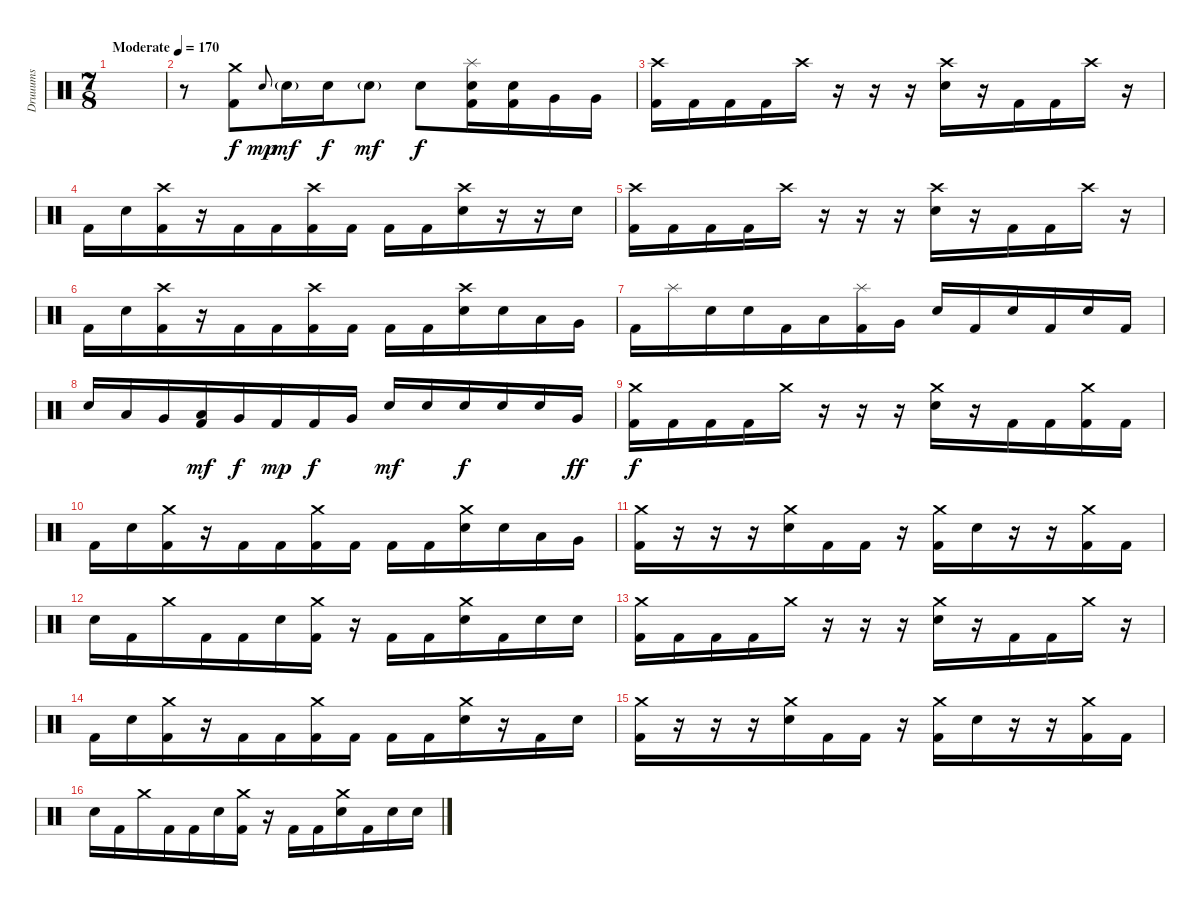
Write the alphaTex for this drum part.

\track ("Druuums" "Druuums") {instrument percussion}
\staff {score}
\articulation defaults
\ts (7 8)
\tempo (170 "Moderate")
\clef neutral
\ks c
|
r.8 ("Crash medium (hit)" "Kick (hit) 2").8 "Electric Snare (hit)".8{gr onbeat dy mp} "Electric Snare (hit)"{g}.16{dy mf} "Electric Snare (hit)".16{dy f} "Electric Snare (hit)"{g}.8{dy mf} "Electric Snare (hit)".8{dy f} ("Splash (hit)" "Electric Snare (hit)" "Kick (hit) 2").16 ("Electric Snare (hit)" "Kick (hit) 2").16 "Very Low Tom (hit)".16 "Very Low Tom (hit)".16 |
("Crash high (hit)" "Kick (hit) 2").16 "Kick (hit) 2".16 "Kick (hit) 2".16 "Kick (hit) 2".16 "Crash high (hit)".16 r.16 r.16 r.16 ("Crash high (hit)" "Electric Snare (hit)").16 r.16 "Kick (hit) 2".16 "Kick (hit) 2".16 "Crash high (hit)".16 r.16 |
"Kick (hit) 2".16 "Electric Snare (hit)".16 ("Crash high (hit)" "Kick (hit) 2").16 r.16 "Kick (hit) 2".16 "Kick (hit) 2".16 ("Crash high (hit)" "Kick (hit) 2").16 "Kick (hit) 2".16 "Kick (hit) 2".16 "Kick (hit) 2".16 ("Crash high (hit)" "Electric Snare (hit)").16 r.16 r.16 "Electric Snare (hit)".16 |
("Crash high (hit)" "Kick (hit) 2").16 "Kick (hit) 2".16 "Kick (hit) 2".16 "Kick (hit) 2".16 "Crash high (hit)".16 r.16 r.16 r.16 ("Crash high (hit)" "Electric Snare (hit)").16 r.16 "Kick (hit) 2".16 "Kick (hit) 2".16 "Crash high (hit)".16 r.16 |
"Kick (hit) 2".16 "Electric Snare (hit)".16 ("Crash high (hit)" "Kick (hit) 2").16 r.16 "Kick (hit) 2".16 "Kick (hit) 2".16 ("Crash high (hit)" "Kick (hit) 2").16 "Kick (hit) 2".16 "Kick (hit) 2".16 "Kick (hit) 2".16 ("Crash high (hit)" "Electric Snare (hit)").16 "Electric Snare (hit)".16 "Low Tom (hit)".16 "Very Low Tom (hit)".16 |
"Kick (hit) 2".16 "Splash (hit)".16 "Electric Snare (hit)".16 "Electric Snare (hit)".16 "Kick (hit) 2".16 "Low Tom (hit)".16 ("Splash (hit)" "Kick (hit) 2").16 "Very Low Tom (hit)".16 "Electric Snare (hit)".16 "Kick (hit) 2".16 "Electric Snare (hit)".16 "Kick (hit) 2".16 "Electric Snare (hit)".16 "Kick (hit) 2".16 |
"Electric Snare (hit)".16 "Low Floor Tom (hit)".16 "Very Low Tom (hit)".16 ("Low Floor Tom (hit)" "Kick (hit) 2").16{dy mf} "Very Low Tom (hit)".16{dy f} "Kick (hit) 2".16{dy mp} "Kick (hit) 2".16{dy f} "Very Low Tom (hit)".16 "Electric Snare (hit)".16{dy mf} "Electric Snare (hit)".16 "Electric Snare (hit)".16{dy f} "Electric Snare (hit)".16 "Electric Snare (hit)".16 "Very Low Tom (hit)".16{dy ff} |
("Crash medium (hit)" "Kick (hit) 2").16{dy f} "Kick (hit) 2".16 "Kick (hit) 2".16 "Kick (hit) 2".16 "Crash medium (hit)".16 r.16 r.16 r.16 ("Crash medium (hit)" "Electric Snare (hit)").16 r.16 "Kick (hit) 2".16 "Kick (hit) 2".16 ("Crash medium (hit)" "Kick (hit) 2").16 "Kick (hit) 2".16 |
"Kick (hit) 2".16 "Electric Snare (hit)".16 ("Crash medium (hit)" "Kick (hit) 2").16 r.16 "Kick (hit) 2".16 "Kick (hit) 2".16 ("Crash medium (hit)" "Kick (hit) 2").16 "Kick (hit) 2".16 "Kick (hit) 2".16 "Kick (hit) 2".16 ("Crash medium (hit)" "Electric Snare (hit)").16 "Electric Snare (hit)".16 "Low Tom (hit)".16 "Very Low Tom (hit)".16 |
("Crash medium (hit)" "Kick (hit) 2").16 r.16 r.16 r.16 ("Crash medium (hit)" "Electric Snare (hit)").16 "Kick (hit) 2".16 "Kick (hit) 2".16 r.16 ("Crash medium (hit)" "Kick (hit) 2").16 "Electric Snare (hit)".16 r.16 r.16 ("Crash medium (hit)" "Kick (hit) 2").16 "Kick (hit) 2".16 |
"Electric Snare (hit)".16 "Kick (hit) 2".16 "Crash medium (hit)".16 "Kick (hit) 2".16 "Kick (hit) 2".16 "Electric Snare (hit)".16 ("Crash medium (hit)" "Kick (hit) 2").16 r.16 "Kick (hit) 2".16 "Kick (hit) 2".16 ("Crash medium (hit)" "Electric Snare (hit)").16 "Kick (hit) 2".16 "Electric Snare (hit)".16 "Electric Snare (hit)".16 |
("Crash medium (hit)" "Kick (hit) 2").16 "Kick (hit) 2".16 "Kick (hit) 2".16 "Kick (hit) 2".16 "Crash medium (hit)".16 r.16 r.16 r.16 ("Crash medium (hit)" "Electric Snare (hit)").16 r.16 "Kick (hit) 2".16 "Kick (hit) 2".16 "Crash medium (hit)".16 r.16 |
"Kick (hit) 2".16 "Electric Snare (hit)".16 ("Crash medium (hit)" "Kick (hit) 2").16 r.16 "Kick (hit) 2".16 "Kick (hit) 2".16 ("Crash medium (hit)" "Kick (hit) 2").16 "Kick (hit) 2".16 "Kick (hit) 2".16 "Kick (hit) 2".16 ("Crash medium (hit)" "Electric Snare (hit)").16 r.16 "Kick (hit) 2".16 "Electric Snare (hit)".16 |
("Crash medium (hit)" "Kick (hit) 2").16 r.16 r.16 r.16 ("Crash medium (hit)" "Electric Snare (hit)").16 "Kick (hit) 2".16 "Kick (hit) 2".16 r.16 ("Crash medium (hit)" "Kick (hit) 2").16 "Electric Snare (hit)".16 r.16 r.16 ("Crash medium (hit)" "Kick (hit) 2").16 "Kick (hit) 2".16 |
"Electric Snare (hit)".16 "Kick (hit) 2".16 "Crash medium (hit)".16 "Kick (hit) 2".16 "Kick (hit) 2".16 "Electric Snare (hit)".16 ("Crash medium (hit)" "Kick (hit) 2").16 r.16 "Kick (hit) 2".16 "Kick (hit) 2".16 ("Crash medium (hit)" "Electric Snare (hit)").16 "Kick (hit) 2".16 "Electric Snare (hit)".16 "Electric Snare (hit)".16
